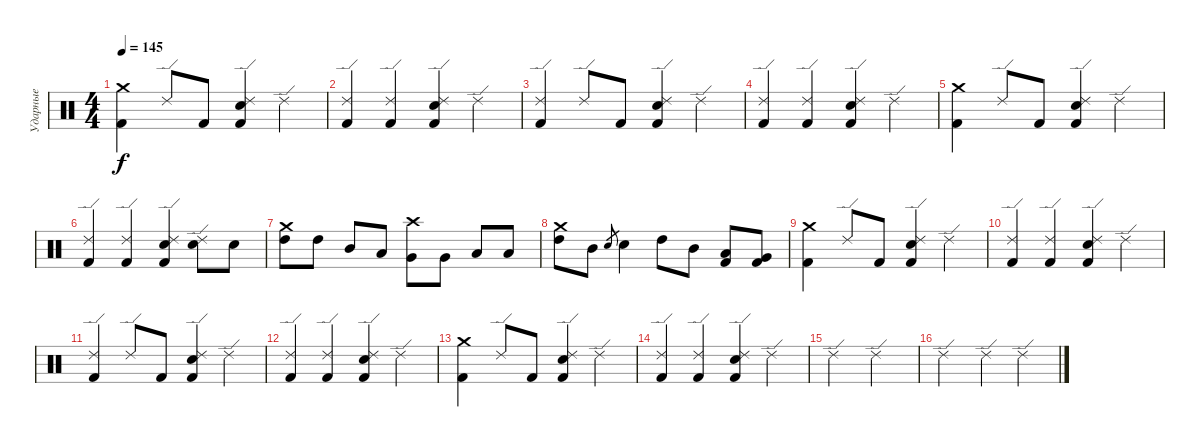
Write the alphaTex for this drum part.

\track ("Ударные" "Ударные") {instrument percussion}
\staff {score}
\articulation defaults
\ts (4 4)
\tempo 145
\clef neutral
\ks c
("Crash medium (hit)" "Kick (hit) 2").4{dy f} "Ride (edge) 2".8 "Kick (hit) 2".8 ("Ride (edge) 2" "Electric Snare (hit)" "Kick (hit) 2").4 "Ride (edge) 2".4 |
("Ride (edge) 2" "Kick (hit) 2").4 ("Ride (edge) 2" "Kick (hit) 2").4 ("Ride (edge) 2" "Electric Snare (hit)" "Kick (hit) 2").4 "Ride (edge) 2".4 |
("Ride (edge) 2" "Kick (hit) 2").4 "Ride (edge) 2".8 "Kick (hit) 2".8 ("Ride (edge) 2" "Electric Snare (hit)" "Kick (hit) 2").4 "Ride (edge) 2".4 |
("Ride (edge) 2" "Kick (hit) 2").4 ("Ride (edge) 2" "Kick (hit) 2").4 ("Ride (edge) 2" "Electric Snare (hit)" "Kick (hit) 2").4 "Ride (edge) 2".4 |
("Crash medium (hit)" "Kick (hit) 2").4 "Ride (edge) 2".8 "Kick (hit) 2".8 ("Ride (edge) 2" "Electric Snare (hit)" "Kick (hit) 2").4 "Ride (edge) 2".4 |
("Ride (edge) 2" "Kick (hit) 2").4 ("Ride (edge) 2" "Kick (hit) 2").4 ("Ride (edge) 2" "Electric Snare (hit)" "Kick (hit) 2").4 ("Electric Snare (hit)" "Ride (edge) 2").8 "Electric Snare (hit)".8 |
("High Tom (hit)" "Crash medium (hit)").8 "High Tom (hit)".8 "Mid Tom (hit)".8 "Low Tom (hit)".8 ("Very Low Tom (hit)" "Crash high (hit)").8 "Very Low Tom (hit)".8 "Low Floor Tom (hit)".8 "Low Floor Tom (hit)".8 |
("Crash medium (hit)" "High Tom (hit)").8 "Mid Tom (hit)".8 "Electric Snare (hit)".8{gr} "Electric Snare (hit)".4 "High Tom (hit)".8 "Mid Tom (hit)".8 ("Low Tom (hit)" "Kick (hit) 2").8 ("Very Low Tom (hit)" "Kick (hit) 2").8 |
("Crash medium (hit)" "Kick (hit) 2").4 "Ride (edge) 2".8 "Kick (hit) 2".8 ("Ride (edge) 2" "Electric Snare (hit)" "Kick (hit) 2").4 "Ride (edge) 2".4 |
("Ride (edge) 2" "Kick (hit) 2").4 ("Ride (edge) 2" "Kick (hit) 2").4 ("Ride (edge) 2" "Electric Snare (hit)" "Kick (hit) 2").4 "Ride (edge) 2".4 |
("Ride (edge) 2" "Kick (hit) 2").4 "Ride (edge) 2".8 "Kick (hit) 2".8 ("Ride (edge) 2" "Electric Snare (hit)" "Kick (hit) 2").4 "Ride (edge) 2".4 |
("Ride (edge) 2" "Kick (hit) 2").4 ("Ride (edge) 2" "Kick (hit) 2").4 ("Ride (edge) 2" "Electric Snare (hit)" "Kick (hit) 2").4 "Ride (edge) 2".4 |
("Crash medium (hit)" "Kick (hit) 2").4 "Ride (edge) 2".8 "Kick (hit) 2".8 ("Ride (edge) 2" "Electric Snare (hit)" "Kick (hit) 2").4 "Ride (edge) 2".4 |
("Ride (edge) 2" "Kick (hit) 2").4 ("Ride (edge) 2" "Kick (hit) 2").4 ("Ride (edge) 2" "Electric Snare (hit)" "Kick (hit) 2").4 "Ride (edge) 2".4 |
"Ride (edge) 2".2 "Ride (edge) 2".2 |
"Ride (edge) 2".2 "Ride (edge) 2".4 "Ride (edge) 2".4
